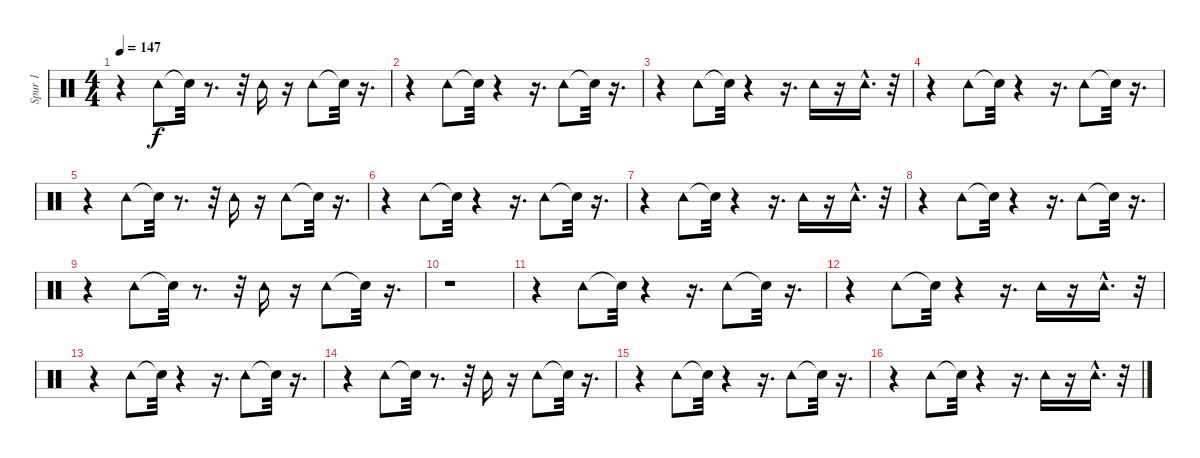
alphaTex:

\track ("Spur 1" "Spur 1") {instrument percussion}
\staff {score}
\articulation defaults
\ts (4 4)
\tempo 147
\clef neutral
\ks c
r.4{dy f} "Tambourine (hit)".8 "Snare (hit)"{t}.32 r.8{d} r.32 "Tambourine (hit)".16 r.16 "Tambourine (hit)".8 "Snare (hit)"{t}.32 r.16{d} |
r.4 "Tambourine (hit)".8 "Snare (hit)"{t}.32 r.4 r.16{d} "Tambourine (hit)".8 "Snare (hit)"{t}.32 r.16{d} |
r.4 "Tambourine (hit)".8 "Snare (hit)"{t}.32 r.4 r.16{d} "Tambourine (hit)".16 r.16 "Tambourine (hit)"{hac}.16{d} r.32 |
r.4 "Tambourine (hit)".8 "Snare (hit)"{t}.32 r.4 r.16{d} "Tambourine (hit)".8 "Snare (hit)"{t}.32 r.16{d} |
r.4 "Tambourine (hit)".8 "Snare (hit)"{t}.32 r.8{d} r.32 "Tambourine (hit)".16 r.16 "Tambourine (hit)".8 "Snare (hit)"{t}.32 r.16{d} |
r.4 "Tambourine (hit)".8 "Snare (hit)"{t}.32 r.4 r.16{d} "Tambourine (hit)".8 "Snare (hit)"{t}.32 r.16{d} |
r.4 "Tambourine (hit)".8 "Snare (hit)"{t}.32 r.4 r.16{d} "Tambourine (hit)".16 r.16 "Tambourine (hit)"{hac}.16{d} r.32 |
r.4 "Tambourine (hit)".8 "Snare (hit)"{t}.32 r.4 r.16{d} "Tambourine (hit)".8 "Snare (hit)"{t}.32 r.16{d} |
r.4 "Tambourine (hit)".8 "Snare (hit)"{t}.32 r.8{d} r.32 "Tambourine (hit)".16 r.16 "Tambourine (hit)".8 "Snare (hit)"{t}.32 r.16{d} |
r.1 |
r.4 "Tambourine (hit)".8 "Snare (hit)"{t}.32 r.4 r.16{d} "Tambourine (hit)".8 "Snare (hit)"{t}.32 r.16{d} |
r.4 "Tambourine (hit)".8 "Snare (hit)"{t}.32 r.4 r.16{d} "Tambourine (hit)".16 r.16 "Tambourine (hit)"{hac}.16{d} r.32 |
r.4 "Tambourine (hit)".8 "Snare (hit)"{t}.32 r.4 r.16{d} "Tambourine (hit)".8 "Snare (hit)"{t}.32 r.16{d} |
r.4 "Tambourine (hit)".8 "Snare (hit)"{t}.32 r.8{d} r.32 "Tambourine (hit)".16 r.16 "Tambourine (hit)".8 "Snare (hit)"{t}.32 r.16{d} |
r.4 "Tambourine (hit)".8 "Snare (hit)"{t}.32 r.4 r.16{d} "Tambourine (hit)".8 "Snare (hit)"{t}.32 r.16{d} |
r.4 "Tambourine (hit)".8 "Snare (hit)"{t}.32 r.4 r.16{d} "Tambourine (hit)".16 r.16 "Tambourine (hit)"{hac}.16{d} r.32
